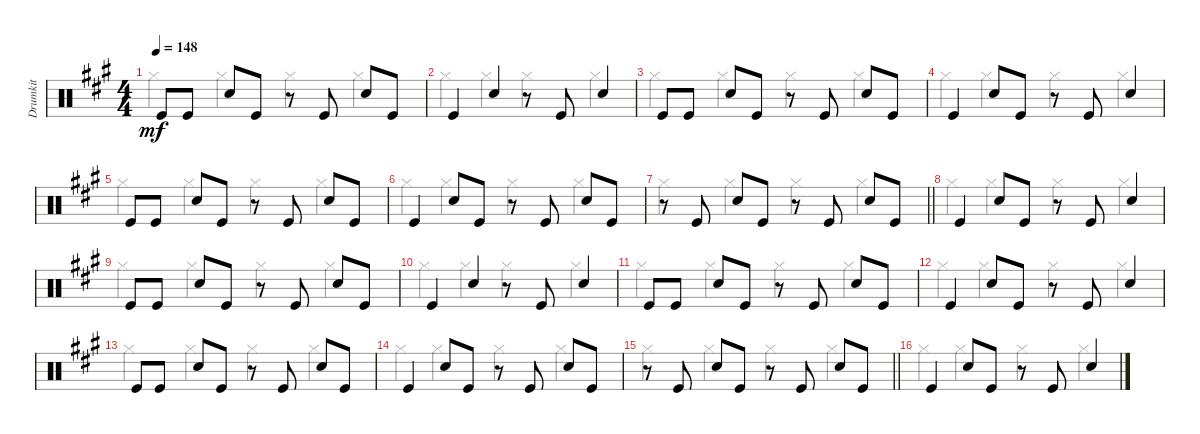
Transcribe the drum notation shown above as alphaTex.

\track ("Drumkit" "Drumkit") {instrument percussion}
\staff {score}
\articulation defaults
\voice
\ts (4 4)
\tempo 148
\clef neutral
\ks a "Kick (hit)".8{dy mf} "Kick (hit)".8 "Snare (hit) 2".8 "Kick (hit)".8
r.8 "Kick (hit)".8 "Snare (hit) 2".8 "Kick (hit)".8 |
"Kick (hit)".4 "Snare (hit) 2".4 r.8 "Kick (hit)".8 "Snare (hit) 2".4 |
"Kick (hit)".8 "Kick (hit)".8 "Snare (hit) 2".8 "Kick (hit)".8 r.8 "Kick (hit)".8 "Snare (hit) 2".8 "Kick (hit)".8 |
"Kick (hit)".4 "Snare (hit) 2".8 "Kick (hit)".8 r.8 "Kick (hit)".8 "Snare (hit) 2".4 |
"Kick (hit)".8 "Kick (hit)".8 "Snare (hit) 2".8 "Kick (hit)".8 r.8 "Kick (hit)".8 "Snare (hit) 2".8 "Kick (hit)".8 |
"Kick (hit)".4 "Snare (hit) 2".8 "Kick (hit)".8 r.8 "Kick (hit)".8 "Snare (hit) 2".8 "Kick (hit)".8 |
\barLineRight lightlight
r.8 "Kick (hit)".8 "Snare (hit) 2".8 "Kick (hit)".8 r.8 "Kick (hit)".8 "Snare (hit) 2".8 "Kick (hit)".8 |
"Kick (hit)".4 "Snare (hit) 2".8 "Kick (hit)".8 r.8 "Kick (hit)".8 "Snare (hit) 2".4 |
"Kick (hit)".8 "Kick (hit)".8 "Snare (hit) 2".8 "Kick (hit)".8 r.8 "Kick (hit)".8 "Snare (hit) 2".8 "Kick (hit)".8 |
"Kick (hit)".4 "Snare (hit) 2".4 r.8 "Kick (hit)".8 "Snare (hit) 2".4 |
"Kick (hit)".8 "Kick (hit)".8 "Snare (hit) 2".8 "Kick (hit)".8 r.8 "Kick (hit)".8 "Snare (hit) 2".8 "Kick (hit)".8 |
"Kick (hit)".4 "Snare (hit) 2".8 "Kick (hit)".8 r.8 "Kick (hit)".8 "Snare (hit) 2".4 |
"Kick (hit)".8 "Kick (hit)".8 "Snare (hit) 2".8 "Kick (hit)".8 r.8 "Kick (hit)".8 "Snare (hit) 2".8 "Kick (hit)".8 |
"Kick (hit)".4 "Snare (hit) 2".8 "Kick (hit)".8 r.8 "Kick (hit)".8 "Snare (hit) 2".8 "Kick (hit)".8 |
\barLineRight lightlight
r.8 "Kick (hit)".8 "Snare (hit) 2".8 "Kick (hit)".8 r.8 "Kick (hit)".8 "Snare (hit) 2".8 "Kick (hit)".8 |
"Kick (hit)".4 "Snare (hit) 2".8 "Kick (hit)".8 r.8 "Kick (hit)".8 "Snare (hit) 2".4
\voice
\clef neutral
\ottava regular
\simile none
\ks a "Hi-Hat (closed)".4{dy mf} "Hi-Hat (closed)".4 "Hi-Hat (closed)".4 "Hi-Hat (closed)".4
|
"Hi-Hat (closed)".4 "Hi-Hat (closed)".4 "Hi-Hat (closed)".4 "Hi-Hat (closed)".4 |
"Hi-Hat (closed)".4 "Hi-Hat (closed)".4 "Hi-Hat (closed)".4 "Hi-Hat (closed)".4 |
"Hi-Hat (closed)".4 "Hi-Hat (closed)".4 "Hi-Hat (closed)".4 "Hi-Hat (closed)".4 |
"Hi-Hat (closed)".4 "Hi-Hat (closed)".4 "Hi-Hat (closed)".4 "Hi-Hat (closed)".4 |
"Hi-Hat (closed)".4 "Hi-Hat (closed)".4 "Hi-Hat (closed)".4 "Hi-Hat (closed)".4 |
\barLineRight lightlight "Hi-Hat (closed)".4 "Hi-Hat (closed)".4 "Hi-Hat (closed)".4 "Hi-Hat (closed)".4
|
"Hi-Hat (closed)".4 "Hi-Hat (closed)".4 "Hi-Hat (closed)".4 "Hi-Hat (closed)".4 |
"Hi-Hat (closed)".4 "Hi-Hat (closed)".4 "Hi-Hat (closed)".4 "Hi-Hat (closed)".4 |
"Hi-Hat (closed)".4 "Hi-Hat (closed)".4 "Hi-Hat (closed)".4 "Hi-Hat (closed)".4 |
"Hi-Hat (closed)".4 "Hi-Hat (closed)".4 "Hi-Hat (closed)".4 "Hi-Hat (closed)".4 |
"Hi-Hat (closed)".4 "Hi-Hat (closed)".4 "Hi-Hat (closed)".4 "Hi-Hat (closed)".4 |
"Hi-Hat (closed)".4 "Hi-Hat (closed)".4 "Hi-Hat (closed)".4 "Hi-Hat (closed)".4 |
"Hi-Hat (closed)".4 "Hi-Hat (closed)".4 "Hi-Hat (closed)".4 "Hi-Hat (closed)".4 |
\barLineRight lightlight "Hi-Hat (closed)".4 "Hi-Hat (closed)".4 "Hi-Hat (closed)".4 "Hi-Hat (closed)".4
|
"Hi-Hat (closed)".4 "Hi-Hat (closed)".4 "Hi-Hat (closed)".4 "Hi-Hat (closed)".4
